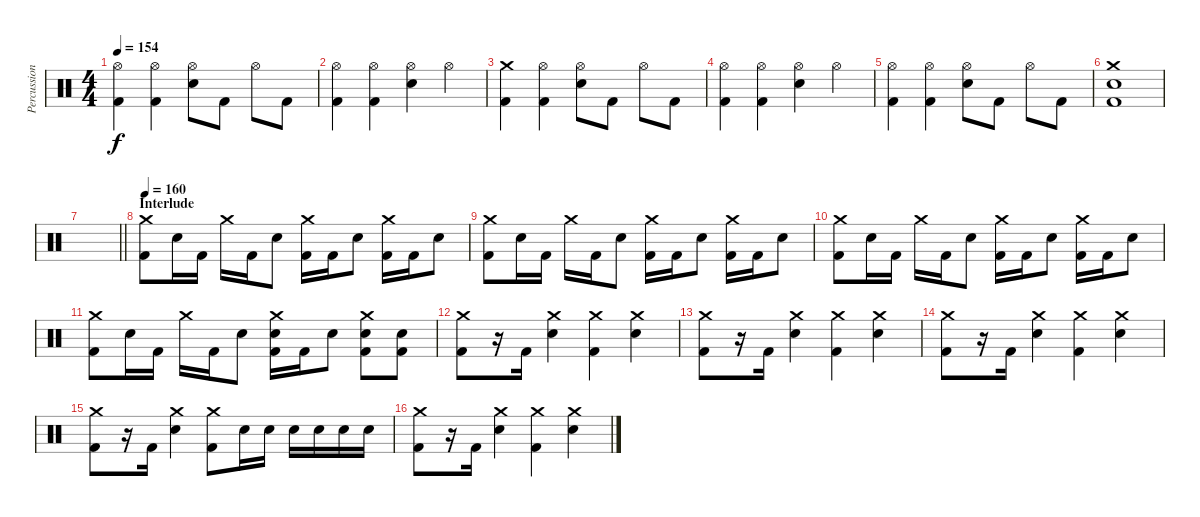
\track ("Percussion" "Percussion") {instrument percussion}
\staff {score}
\articulation defaults
\ts (4 4)
\tempo 154
\clef neutral
\ks c
("Hi-Hat (open)" "Kick (hit) 2").4{dy f} ("Hi-Hat (open)" "Kick (hit) 2").4 ("Electric Snare (hit)" "Hi-Hat (open)").8 "Kick (hit) 2".8 "Hi-Hat (open)".8 "Kick (hit) 2".8 |
("Hi-Hat (open)" "Kick (hit) 2").4 ("Hi-Hat (open)" "Kick (hit) 2").4 ("Electric Snare (hit)" "Hi-Hat (open)").4 "Hi-Hat (open)".4 |
("Crash medium (hit)" "Kick (hit) 2").4 ("Hi-Hat (open)" "Kick (hit) 2").4 ("Electric Snare (hit)" "Hi-Hat (open)").8 "Kick (hit) 2".8 "Hi-Hat (open)".8 "Kick (hit) 2".8 |
("Hi-Hat (open)" "Kick (hit) 2").4 ("Hi-Hat (open)" "Kick (hit) 2").4 ("Electric Snare (hit)" "Hi-Hat (open)").4 "Hi-Hat (open)".4 |
("Hi-Hat (open)" "Kick (hit) 2").4 ("Hi-Hat (open)" "Kick (hit) 2").4 ("Electric Snare (hit)" "Hi-Hat (open)").8 "Kick (hit) 2".8 "Hi-Hat (open)".8 "Kick (hit) 2".8 |
("Crash medium (hit)" "Electric Snare (hit)" "Kick (hit) 2").1 |
\barLineRight lightlight
|
\section ("" "Interlude")
\tempo 160
("Crash medium (hit)" "Kick (hit) 2").8 "Electric Snare (hit)".16 "Kick (hit) 2".16 "Crash medium (hit)".16 "Kick (hit) 2".16 "Electric Snare (hit)".8 ("Crash medium (hit)" "Kick (hit) 2").16 "Kick (hit) 2".16 "Electric Snare (hit)".8 ("Crash medium (hit)" "Kick (hit) 2").16 "Kick (hit) 2".16 "Electric Snare (hit)".8 |
("Crash medium (hit)" "Kick (hit) 2").8 "Electric Snare (hit)".16 "Kick (hit) 2".16 "Crash medium (hit)".16 "Kick (hit) 2".16 "Electric Snare (hit)".8 ("Crash medium (hit)" "Kick (hit) 2").16 "Kick (hit) 2".16 "Electric Snare (hit)".8 ("Crash medium (hit)" "Kick (hit) 2").16 "Kick (hit) 2".16 "Electric Snare (hit)".8 |
("Crash medium (hit)" "Kick (hit) 2").8 "Electric Snare (hit)".16 "Kick (hit) 2".16 "Crash medium (hit)".16 "Kick (hit) 2".16 "Electric Snare (hit)".8 ("Crash medium (hit)" "Kick (hit) 2").16 "Kick (hit) 2".16 "Electric Snare (hit)".8 ("Crash medium (hit)" "Kick (hit) 2").16 "Kick (hit) 2".16 "Electric Snare (hit)".8 |
("Crash medium (hit)" "Kick (hit) 2").8 "Electric Snare (hit)".16 "Kick (hit) 2".16 "Crash medium (hit)".16 "Kick (hit) 2".16 "Electric Snare (hit)".8 ("Crash medium (hit)" "Electric Snare (hit)" "Kick (hit) 2").16 "Kick (hit) 2".16 "Electric Snare (hit)".8 ("Crash medium (hit)" "Electric Snare (hit)" "Kick (hit) 2").8 ("Electric Snare (hit)" "Kick (hit) 2").8 |
("Crash medium (hit)" "Kick (hit) 2").8 r.16 "Kick (hit) 2".16 ("Crash medium (hit)" "Electric Snare (hit)").4 ("Crash medium (hit)" "Kick (hit) 2").4 ("Crash medium (hit)" "Electric Snare (hit)").4 |
("Crash medium (hit)" "Kick (hit) 2").8 r.16 "Kick (hit) 2".16 ("Crash medium (hit)" "Electric Snare (hit)").4 ("Crash medium (hit)" "Kick (hit) 2").4 ("Crash medium (hit)" "Electric Snare (hit)").4 |
("Crash medium (hit)" "Kick (hit) 2").8 r.16 "Kick (hit) 2".16 ("Crash medium (hit)" "Electric Snare (hit)").4 ("Crash medium (hit)" "Kick (hit) 2").4 ("Crash medium (hit)" "Electric Snare (hit)").4 |
("Crash medium (hit)" "Kick (hit) 2").8 r.16 "Kick (hit) 2".16 ("Crash medium (hit)" "Electric Snare (hit)").4 ("Crash medium (hit)" "Kick (hit) 2").8 "Electric Snare (hit)".16 "Electric Snare (hit)".16 "Electric Snare (hit)".16 "Electric Snare (hit)".16 "Electric Snare (hit)".16 "Electric Snare (hit)".16 |
("Crash medium (hit)" "Kick (hit) 2").8 r.16 "Kick (hit) 2".16 ("Crash medium (hit)" "Electric Snare (hit)").4 ("Crash medium (hit)" "Kick (hit) 2").4 ("Crash medium (hit)" "Electric Snare (hit)").4
